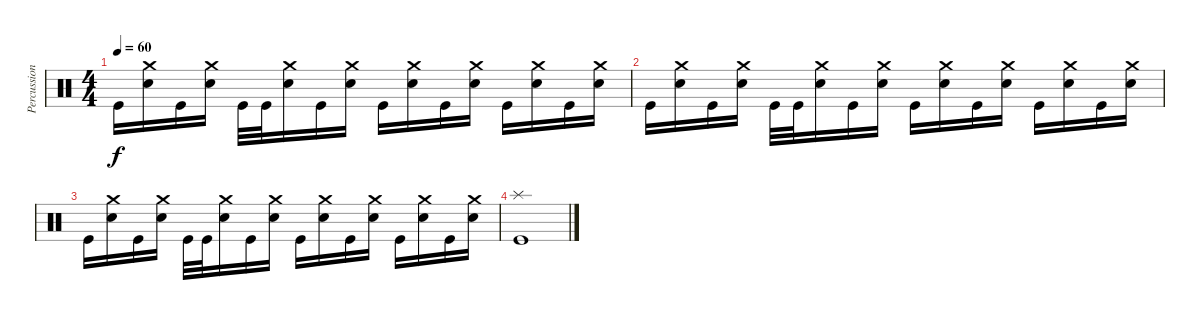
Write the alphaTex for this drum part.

\track ("Percussions" "Percussion") {instrument percussion}
\staff {score}
\articulation defaults
\ts (4 4)
\tempo 60
\clef neutral
\ks c "Kick (hit)".16{dy f}
("Crash medium (hit)" "Electric Snare (hit)").16 "Kick (hit)".16 ("Crash medium (hit)" "Electric Snare (hit)").16 "Kick (hit)".32 "Kick (hit)".32 ("Crash medium (hit)" "Electric Snare (hit)").16 "Kick (hit)".16 ("Crash medium (hit)" "Electric Snare (hit)").16 "Kick (hit)".16 ("Crash medium (hit)" "Electric Snare (hit)").16 "Kick (hit)".16 ("Crash medium (hit)" "Electric Snare (hit)").16 "Kick (hit)".16 ("Crash medium (hit)" "Electric Snare (hit)").16 "Kick (hit)".16 ("Crash medium (hit)" "Electric Snare (hit)").16 |
"Kick (hit)".16 ("Crash medium (hit)" "Electric Snare (hit)").16 "Kick (hit)".16 ("Crash medium (hit)" "Electric Snare (hit)").16 "Kick (hit)".32 "Kick (hit)".32 ("Crash medium (hit)" "Electric Snare (hit)").16 "Kick (hit)".16 ("Crash medium (hit)" "Electric Snare (hit)").16 "Kick (hit)".16 ("Crash medium (hit)" "Electric Snare (hit)").16 "Kick (hit)".16 ("Crash medium (hit)" "Electric Snare (hit)").16 "Kick (hit)".16 ("Crash medium (hit)" "Electric Snare (hit)").16 "Kick (hit)".16 ("Crash medium (hit)" "Electric Snare (hit)").16 |
"Kick (hit)".16 ("Crash medium (hit)" "Electric Snare (hit)").16 "Kick (hit)".16 ("Crash medium (hit)" "Electric Snare (hit)").16 "Kick (hit)".32 "Kick (hit)".32 ("Crash medium (hit)" "Electric Snare (hit)").16 "Kick (hit)".16 ("Crash medium (hit)" "Electric Snare (hit)").16 "Kick (hit)".16 ("Crash medium (hit)" "Electric Snare (hit)").16 "Kick (hit)".16 ("Crash medium (hit)" "Electric Snare (hit)").16 "Kick (hit)".16 ("Crash medium (hit)" "Electric Snare (hit)").16 "Kick (hit)".16 ("Crash medium (hit)" "Electric Snare (hit)").16 |
("Splash (hit)" "Kick (hit)").1
